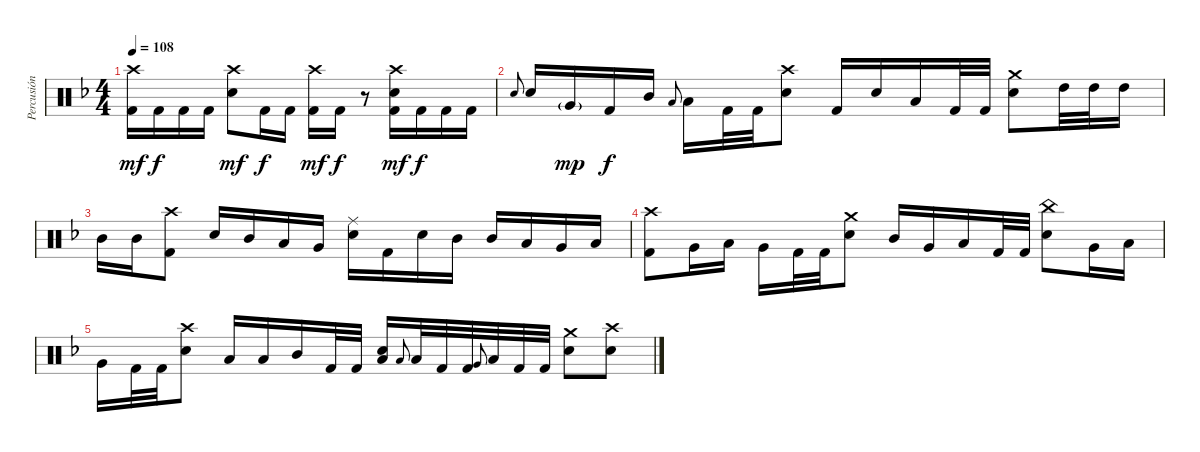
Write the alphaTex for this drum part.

\track ("Percusión" "Percusión") {instrument percussion}
\staff {score}
\articulation defaults
\ts (4 4)
\tempo 108
\clef neutral
\ks f
("Crash high (hit)" "Kick (hit) 2").16{dy mf} "Kick (hit) 2".16{dy f} "Kick (hit) 2".16 "Kick (hit) 2".16 ("Crash high (hit)" "Snare (hit) 2").8{dy mf} "Kick (hit) 2".16{dy f} "Kick (hit) 2".16 ("Crash high (hit)" "Kick (hit) 2").16{dy mf} "Kick (hit) 2".16{dy f} r.8 ("Crash high (hit)" "Snare (hit) 2" "Kick (hit) 2").16{dy mf} "Kick (hit) 2".16{dy f} "Kick (hit) 2".16 "Kick (hit) 2".16 |
"Snare (hit) 2".8{gr onbeat} "Snare (hit) 2".16 "Very Low Tom (hit)"{g}.16{dy mp} "Kick (hit) 2".16{dy f} "Mid Tom (hit)".16 "Low Tom (hit)".8{gr onbeat} "Low Tom (hit)".16 "Kick (hit) 2".32 "Kick (hit) 2".32 ("Crash high (hit)" "Snare (hit) 2").8 "Kick (hit) 2".16 "Snare (hit) 2".16 "Low Tom (hit)".16 "Kick (hit) 2".32 "Kick (hit) 2".32 ("Crash medium (hit)" "Snare (hit) 2").8 "High Tom (hit)".32 "High Tom (hit)".32 "High Tom (hit)".16 |
"Mid Tom (hit)".16 "Mid Tom (hit)".16 ("Crash high (hit)" "Kick (hit) 2").8 "Snare (hit) 2".16 "Mid Tom (hit)".16 "Low Tom (hit)".16 "Very Low Tom (hit)".16 ("Ride (middle)" "Snare (hit) 2").16 "Kick (hit) 2".16 "Snare (hit) 2".16 "Mid Tom (hit)".16 "Mid Tom (hit)".16 "Low Tom (hit)".16 "Very Low Tom (hit)".16 "Low Floor Tom (hit)".16 |
("Crash high (hit)" "Kick (hit) 2").8 "Very Low Tom (hit)".16 "Low Floor Tom (hit)".16 "Very Low Tom (hit)".16 "Kick (hit) 2".32 "Kick (hit) 2".32 ("Crash medium (hit)" "Snare (hit) 2").8 "Mid Tom (hit)".16 "Very Low Tom (hit)".16 "Low Tom (hit)".16 "Kick (hit) 2".32 "Kick (hit) 2".32 ("China (hit)" "Snare (hit) 2").8 "Very Low Tom (hit)".16 "Low Floor Tom (hit)".16 |
"Very Low Tom (hit)".16 "Kick (hit) 2".32 "Kick (hit) 2".32 ("Crash high (hit)" "Snare (hit) 2").8 "Low Tom (hit)".16 "Low Floor Tom (hit)".16 "Mid Tom (hit)".16 "Kick (hit) 2".32 "Kick (hit) 2".32 ("Snare (hit) 2" "Low Floor Tom (hit)").16 "Low Floor Tom (hit)".8{gr onbeat} "Low Floor Tom (hit)".32 "Kick (hit) 2".32 "Kick (hit) 2".32 "Very Low Tom (hit)".8{gr onbeat} "Low Floor Tom (hit)".32 "Kick (hit) 2".32 "Kick (hit) 2".32 ("Crash medium (hit)" "Snare (hit) 2").8 ("Crash high (hit)" "Snare (hit) 2").8
